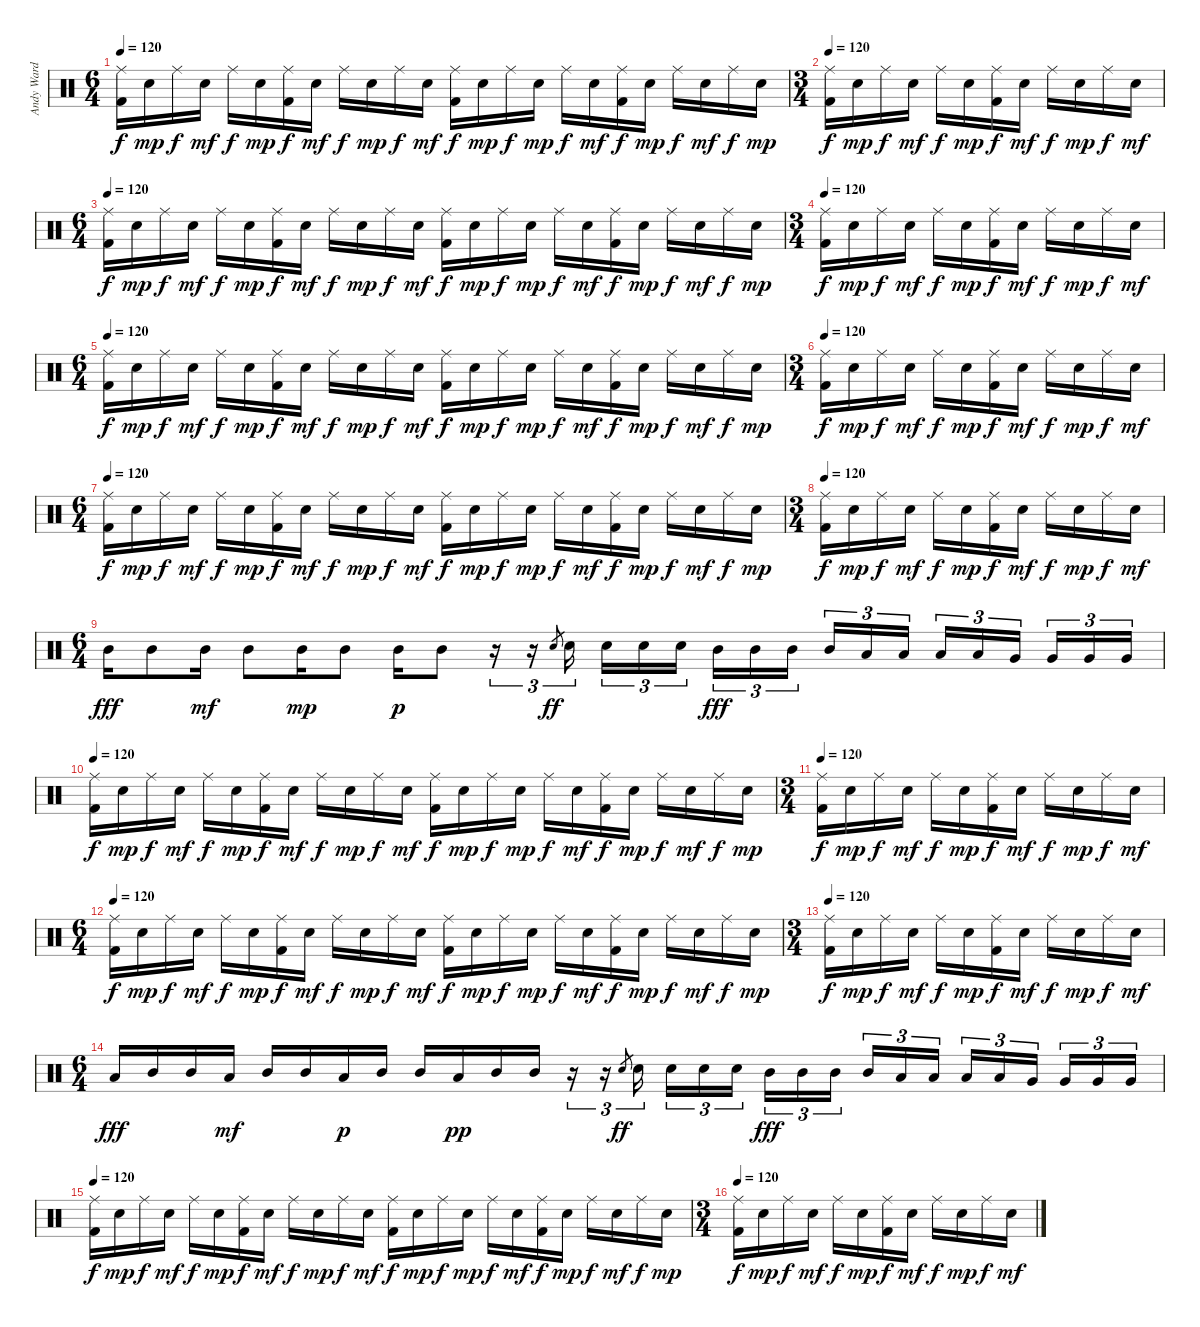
\track ("Andy Ward - Drums" "Andy Ward ") {instrument percussion}
\staff {score}
\articulation defaults
\ts (6 4)
\tempo 120
\clef neutral
\ks c
("Ride (middle)" "Kick (hit) 2").16{dy f} "Electric Snare (hit)".16{dy mp} "Ride (middle)".16{dy f} "Electric Snare (hit)".16{dy mf} "Ride (middle)".16{dy f} "Electric Snare (hit)".16{dy mp} ("Ride (middle)" "Kick (hit) 2").16{dy f} "Electric Snare (hit)".16{dy mf} "Ride (middle)".16{dy f} "Electric Snare (hit)".16{dy mp} "Ride (middle)".16{dy f} "Electric Snare (hit)".16{dy mf} ("Ride (middle)" "Kick (hit) 2").16{dy f} "Electric Snare (hit)".16{dy mp} "Ride (middle)".16{dy f} "Electric Snare (hit)".16{dy mp} "Ride (middle)".16{dy f} "Electric Snare (hit)".16{dy mf} ("Ride (middle)" "Kick (hit) 2").16{dy f} "Electric Snare (hit)".16{dy mp} "Ride (middle)".16{dy f} "Electric Snare (hit)".16{dy mf} "Ride (middle)".16{dy f} "Electric Snare (hit)".16{dy mp} |
\ts (3 4)
\tempo 120
("Ride (middle)" "Kick (hit) 2").16{dy f} "Electric Snare (hit)".16{dy mp} "Ride (middle)".16{dy f} "Electric Snare (hit)".16{dy mf} "Ride (middle)".16{dy f} "Electric Snare (hit)".16{dy mp} ("Ride (middle)" "Kick (hit) 2").16{dy f} "Electric Snare (hit)".16{dy mf} "Ride (middle)".16{dy f} "Electric Snare (hit)".16{dy mp} "Ride (middle)".16{dy f} "Electric Snare (hit)".16{dy mf} |
\ts (6 4)
\tempo 120
("Ride (middle)" "Kick (hit) 2").16{dy f} "Electric Snare (hit)".16{dy mp} "Ride (middle)".16{dy f} "Electric Snare (hit)".16{dy mf} "Ride (middle)".16{dy f} "Electric Snare (hit)".16{dy mp} ("Ride (middle)" "Kick (hit) 2").16{dy f} "Electric Snare (hit)".16{dy mf} "Ride (middle)".16{dy f} "Electric Snare (hit)".16{dy mp} "Ride (middle)".16{dy f} "Electric Snare (hit)".16{dy mf} ("Ride (middle)" "Kick (hit) 2").16{dy f} "Electric Snare (hit)".16{dy mp} "Ride (middle)".16{dy f} "Electric Snare (hit)".16{dy mp} "Ride (middle)".16{dy f} "Electric Snare (hit)".16{dy mf} ("Ride (middle)" "Kick (hit) 2").16{dy f} "Electric Snare (hit)".16{dy mp} "Ride (middle)".16{dy f} "Electric Snare (hit)".16{dy mf} "Ride (middle)".16{dy f} "Electric Snare (hit)".16{dy mp} |
\ts (3 4)
\tempo 120
("Ride (middle)" "Kick (hit) 2").16{dy f} "Electric Snare (hit)".16{dy mp} "Ride (middle)".16{dy f} "Electric Snare (hit)".16{dy mf} "Ride (middle)".16{dy f} "Electric Snare (hit)".16{dy mp} ("Ride (middle)" "Kick (hit) 2").16{dy f} "Electric Snare (hit)".16{dy mf} "Ride (middle)".16{dy f} "Electric Snare (hit)".16{dy mp} "Ride (middle)".16{dy f} "Electric Snare (hit)".16{dy mf} |
\ts (6 4)
\tempo 120
("Ride (middle)" "Kick (hit) 2").16{dy f} "Electric Snare (hit)".16{dy mp} "Ride (middle)".16{dy f} "Electric Snare (hit)".16{dy mf} "Ride (middle)".16{dy f} "Electric Snare (hit)".16{dy mp} ("Ride (middle)" "Kick (hit) 2").16{dy f} "Electric Snare (hit)".16{dy mf} "Ride (middle)".16{dy f} "Electric Snare (hit)".16{dy mp} "Ride (middle)".16{dy f} "Electric Snare (hit)".16{dy mf} ("Ride (middle)" "Kick (hit) 2").16{dy f} "Electric Snare (hit)".16{dy mp} "Ride (middle)".16{dy f} "Electric Snare (hit)".16{dy mp} "Ride (middle)".16{dy f} "Electric Snare (hit)".16{dy mf} ("Ride (middle)" "Kick (hit) 2").16{dy f} "Electric Snare (hit)".16{dy mp} "Ride (middle)".16{dy f} "Electric Snare (hit)".16{dy mf} "Ride (middle)".16{dy f} "Electric Snare (hit)".16{dy mp} |
\ts (3 4)
\tempo 120
("Ride (middle)" "Kick (hit) 2").16{dy f} "Electric Snare (hit)".16{dy mp} "Ride (middle)".16{dy f} "Electric Snare (hit)".16{dy mf} "Ride (middle)".16{dy f} "Electric Snare (hit)".16{dy mp} ("Ride (middle)" "Kick (hit) 2").16{dy f} "Electric Snare (hit)".16{dy mf} "Ride (middle)".16{dy f} "Electric Snare (hit)".16{dy mp} "Ride (middle)".16{dy f} "Electric Snare (hit)".16{dy mf} |
\ts (6 4)
\tempo 120
("Ride (middle)" "Kick (hit) 2").16{dy f} "Electric Snare (hit)".16{dy mp} "Ride (middle)".16{dy f} "Electric Snare (hit)".16{dy mf} "Ride (middle)".16{dy f} "Electric Snare (hit)".16{dy mp} ("Ride (middle)" "Kick (hit) 2").16{dy f} "Electric Snare (hit)".16{dy mf} "Ride (middle)".16{dy f} "Electric Snare (hit)".16{dy mp} "Ride (middle)".16{dy f} "Electric Snare (hit)".16{dy mf} ("Ride (middle)" "Kick (hit) 2").16{dy f} "Electric Snare (hit)".16{dy mp} "Ride (middle)".16{dy f} "Electric Snare (hit)".16{dy mp} "Ride (middle)".16{dy f} "Electric Snare (hit)".16{dy mf} ("Ride (middle)" "Kick (hit) 2").16{dy f} "Electric Snare (hit)".16{dy mp} "Ride (middle)".16{dy f} "Electric Snare (hit)".16{dy mf} "Ride (middle)".16{dy f} "Electric Snare (hit)".16{dy mp} |
\ts (3 4)
\tempo 120
("Ride (middle)" "Kick (hit) 2").16{dy f} "Electric Snare (hit)".16{dy mp} "Ride (middle)".16{dy f} "Electric Snare (hit)".16{dy mf} "Ride (middle)".16{dy f} "Electric Snare (hit)".16{dy mp} ("Ride (middle)" "Kick (hit) 2").16{dy f} "Electric Snare (hit)".16{dy mf} "Ride (middle)".16{dy f} "Electric Snare (hit)".16{dy mp} "Ride (middle)".16{dy f} "Electric Snare (hit)".16{dy mf} |
\ts (6 4)
"Mid Tom (hit)".16{dy fff volume 16} "Mid Tom (hit)".8 "Mid Tom (hit)".16{dy mf} "Mid Tom (hit)".8 "Mid Tom (hit)".16{dy mp} "Mid Tom (hit)".8 "Mid Tom (hit)".16{dy p} "Mid Tom (hit)".8 r.16{tu (3 2)} r.16{tu (3 2)} "Electric Snare (hit)".8{gr dy ff} "Electric Snare (hit)".16{tu (3 2)} "Electric Snare (hit)".16{tu (3 2)} "Electric Snare (hit)".16{tu (3 2)} "Electric Snare (hit)".16{tu (3 2)} "Mid Tom (hit)".16{tu (3 2) dy fff} "Mid Tom (hit)".16{tu (3 2)} "Mid Tom (hit)".16{tu (3 2)} "Mid Tom (hit)".16{tu (3 2)} "Low Tom (hit)".16{tu (3 2)} "Low Tom (hit)".16{tu (3 2)} "Low Tom (hit)".16{tu (3 2)} "Low Tom (hit)".16{tu (3 2)} "Very Low Tom (hit)".16{tu (3 2)} "Very Low Tom (hit)".16{tu (3 2)} "Very Low Tom (hit)".16{tu (3 2)} "Very Low Tom (hit)".16{tu (3 2)} |
\tempo 120
("Ride (middle)" "Kick (hit) 2").16{dy f} "Electric Snare (hit)".16{dy mp} "Ride (middle)".16{dy f} "Electric Snare (hit)".16{dy mf} "Ride (middle)".16{dy f} "Electric Snare (hit)".16{dy mp} ("Ride (middle)" "Kick (hit) 2").16{dy f} "Electric Snare (hit)".16{dy mf} "Ride (middle)".16{dy f} "Electric Snare (hit)".16{dy mp} "Ride (middle)".16{dy f} "Electric Snare (hit)".16{dy mf} ("Ride (middle)" "Kick (hit) 2").16{dy f} "Electric Snare (hit)".16{dy mp} "Ride (middle)".16{dy f} "Electric Snare (hit)".16{dy mp} "Ride (middle)".16{dy f} "Electric Snare (hit)".16{dy mf} ("Ride (middle)" "Kick (hit) 2").16{dy f} "Electric Snare (hit)".16{dy mp} "Ride (middle)".16{dy f} "Electric Snare (hit)".16{dy mf} "Ride (middle)".16{dy f} "Electric Snare (hit)".16{dy mp} |
\ts (3 4)
\tempo 120
("Ride (middle)" "Kick (hit) 2").16{dy f} "Electric Snare (hit)".16{dy mp} "Ride (middle)".16{dy f} "Electric Snare (hit)".16{dy mf} "Ride (middle)".16{dy f} "Electric Snare (hit)".16{dy mp} ("Ride (middle)" "Kick (hit) 2").16{dy f} "Electric Snare (hit)".16{dy mf} "Ride (middle)".16{dy f} "Electric Snare (hit)".16{dy mp} "Ride (middle)".16{dy f} "Electric Snare (hit)".16{dy mf} |
\ts (6 4)
\tempo 120
("Ride (middle)" "Kick (hit) 2").16{dy f} "Electric Snare (hit)".16{dy mp} "Ride (middle)".16{dy f} "Electric Snare (hit)".16{dy mf} "Ride (middle)".16{dy f} "Electric Snare (hit)".16{dy mp} ("Ride (middle)" "Kick (hit) 2").16{dy f} "Electric Snare (hit)".16{dy mf} "Ride (middle)".16{dy f} "Electric Snare (hit)".16{dy mp} "Ride (middle)".16{dy f} "Electric Snare (hit)".16{dy mf} ("Ride (middle)" "Kick (hit) 2").16{dy f} "Electric Snare (hit)".16{dy mp} "Ride (middle)".16{dy f} "Electric Snare (hit)".16{dy mp} "Ride (middle)".16{dy f} "Electric Snare (hit)".16{dy mf} ("Ride (middle)" "Kick (hit) 2").16{dy f} "Electric Snare (hit)".16{dy mp} "Ride (middle)".16{dy f} "Electric Snare (hit)".16{dy mf} "Ride (middle)".16{dy f} "Electric Snare (hit)".16{dy mp} |
\ts (3 4)
\tempo 120
("Ride (middle)" "Kick (hit) 2").16{dy f} "Electric Snare (hit)".16{dy mp} "Ride (middle)".16{dy f} "Electric Snare (hit)".16{dy mf} "Ride (middle)".16{dy f} "Electric Snare (hit)".16{dy mp} ("Ride (middle)" "Kick (hit) 2").16{dy f} "Electric Snare (hit)".16{dy mf} "Ride (middle)".16{dy f} "Electric Snare (hit)".16{dy mp} "Ride (middle)".16{dy f} "Electric Snare (hit)".16{dy mf} |
\ts (6 4)
"Low Tom (hit)".16{dy fff volume 16} "Mid Tom (hit)".16 "Mid Tom (hit)".16 "Low Tom (hit)".16{dy mf} "Mid Tom (hit)".16 "Mid Tom (hit)".16 "Low Tom (hit)".16{dy p} "Mid Tom (hit)".16 "Mid Tom (hit)".16 "Low Tom (hit)".16{dy pp} "Mid Tom (hit)".16 "Mid Tom (hit)".16 r.16{tu (3 2)} r.16{tu (3 2)} "Electric Snare (hit)".8{gr dy ff} "Electric Snare (hit)".16{tu (3 2)} "Electric Snare (hit)".16{tu (3 2)} "Electric Snare (hit)".16{tu (3 2)} "Electric Snare (hit)".16{tu (3 2)} "Mid Tom (hit)".16{tu (3 2) dy fff} "Mid Tom (hit)".16{tu (3 2)} "Mid Tom (hit)".16{tu (3 2)} "Mid Tom (hit)".16{tu (3 2)} "Low Tom (hit)".16{tu (3 2)} "Low Tom (hit)".16{tu (3 2)} "Low Tom (hit)".16{tu (3 2)} "Low Tom (hit)".16{tu (3 2)} "Very Low Tom (hit)".16{tu (3 2)} "Very Low Tom (hit)".16{tu (3 2)} "Very Low Tom (hit)".16{tu (3 2)} "Very Low Tom (hit)".16{tu (3 2)} |
\tempo 120
("Ride (middle)" "Kick (hit) 2").16{dy f} "Electric Snare (hit)".16{dy mp} "Ride (middle)".16{dy f} "Electric Snare (hit)".16{dy mf} "Ride (middle)".16{dy f} "Electric Snare (hit)".16{dy mp} ("Ride (middle)" "Kick (hit) 2").16{dy f} "Electric Snare (hit)".16{dy mf} "Ride (middle)".16{dy f} "Electric Snare (hit)".16{dy mp} "Ride (middle)".16{dy f} "Electric Snare (hit)".16{dy mf} ("Ride (middle)" "Kick (hit) 2").16{dy f} "Electric Snare (hit)".16{dy mp} "Ride (middle)".16{dy f} "Electric Snare (hit)".16{dy mp} "Ride (middle)".16{dy f} "Electric Snare (hit)".16{dy mf} ("Ride (middle)" "Kick (hit) 2").16{dy f} "Electric Snare (hit)".16{dy mp} "Ride (middle)".16{dy f} "Electric Snare (hit)".16{dy mf} "Ride (middle)".16{dy f} "Electric Snare (hit)".16{dy mp} |
\ts (3 4)
\tempo 120
("Ride (middle)" "Kick (hit) 2").16{dy f} "Electric Snare (hit)".16{dy mp} "Ride (middle)".16{dy f} "Electric Snare (hit)".16{dy mf} "Ride (middle)".16{dy f} "Electric Snare (hit)".16{dy mp} ("Ride (middle)" "Kick (hit) 2").16{dy f} "Electric Snare (hit)".16{dy mf} "Ride (middle)".16{dy f} "Electric Snare (hit)".16{dy mp} "Ride (middle)".16{dy f} "Electric Snare (hit)".16{dy mf}
